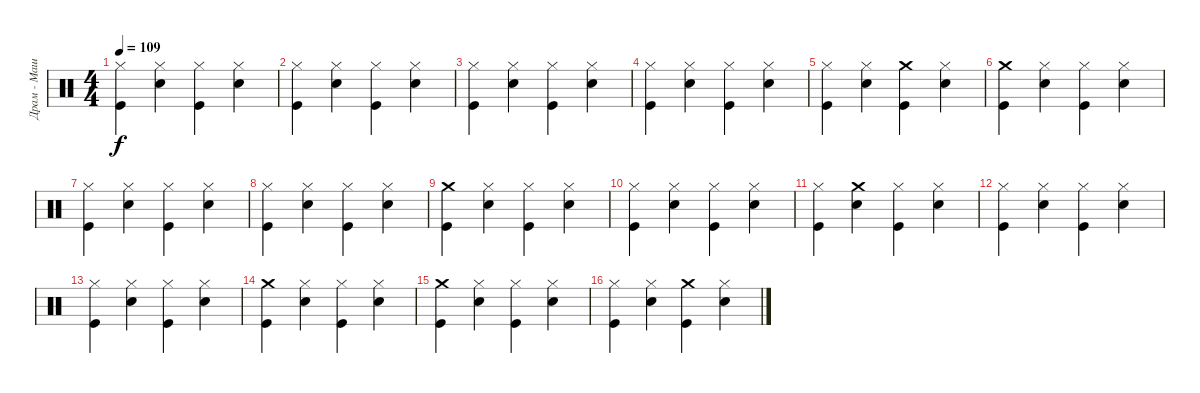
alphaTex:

\track ("Драм - Машина" "Драм - Маш") {instrument percussion}
\staff {score}
\articulation defaults
\ts (4 4)
\tempo 109
\clef neutral
\ks c
("Hi-Hat (closed)" "Kick (hit)").4{dy f} ("Hi-Hat (closed)" "Snare (hit) 2").4 ("Hi-Hat (closed)" "Kick (hit)").4 ("Hi-Hat (closed)" "Snare (hit) 2").4 |
("Hi-Hat (closed)" "Kick (hit)").4 ("Hi-Hat (closed)" "Snare (hit) 2").4 ("Hi-Hat (closed)" "Kick (hit)").4 ("Hi-Hat (closed)" "Snare (hit) 2").4 |
("Hi-Hat (closed)" "Kick (hit)").4 ("Hi-Hat (closed)" "Snare (hit) 2").4 ("Hi-Hat (closed)" "Kick (hit)").4 ("Hi-Hat (closed)" "Snare (hit) 2").4 |
("Hi-Hat (closed)" "Kick (hit)").4 ("Hi-Hat (closed)" "Snare (hit) 2").4 ("Hi-Hat (closed)" "Kick (hit)").4 ("Hi-Hat (closed)" "Snare (hit) 2").4 |
("Hi-Hat (closed)" "Kick (hit)").4 ("Hi-Hat (closed)" "Snare (hit) 2").4 ("Crash medium (hit)" "Kick (hit)").4 ("Hi-Hat (closed)" "Snare (hit) 2").4 |
("Crash medium (hit)" "Kick (hit)").4 ("Hi-Hat (closed)" "Snare (hit) 2").4 ("Hi-Hat (closed)" "Kick (hit)").4 ("Hi-Hat (closed)" "Snare (hit) 2").4 |
("Hi-Hat (closed)" "Kick (hit)").4 ("Hi-Hat (closed)" "Snare (hit) 2").4 ("Hi-Hat (closed)" "Kick (hit)").4 ("Hi-Hat (closed)" "Snare (hit) 2").4 |
("Hi-Hat (closed)" "Kick (hit)").4 ("Hi-Hat (closed)" "Snare (hit) 2").4 ("Hi-Hat (closed)" "Kick (hit)").4 ("Hi-Hat (closed)" "Snare (hit) 2").4 |
("Crash medium (hit)" "Kick (hit)").4 ("Hi-Hat (closed)" "Snare (hit) 2").4 ("Hi-Hat (closed)" "Kick (hit)").4 ("Hi-Hat (closed)" "Snare (hit) 2").4 |
("Hi-Hat (closed)" "Kick (hit)").4 ("Hi-Hat (closed)" "Snare (hit) 2").4 ("Hi-Hat (closed)" "Kick (hit)").4 ("Hi-Hat (closed)" "Snare (hit) 2").4 |
("Hi-Hat (closed)" "Kick (hit)").4 ("Crash medium (hit)" "Snare (hit) 2").4 ("Hi-Hat (closed)" "Kick (hit)").4 ("Hi-Hat (closed)" "Snare (hit) 2").4 |
("Hi-Hat (closed)" "Kick (hit)").4 ("Hi-Hat (closed)" "Snare (hit) 2").4 ("Hi-Hat (closed)" "Kick (hit)").4 ("Hi-Hat (closed)" "Snare (hit) 2").4 |
("Hi-Hat (closed)" "Kick (hit)").4 ("Hi-Hat (closed)" "Snare (hit) 2").4 ("Hi-Hat (closed)" "Kick (hit)").4 ("Hi-Hat (closed)" "Snare (hit) 2").4 |
("Crash medium (hit)" "Kick (hit)").4 ("Hi-Hat (closed)" "Snare (hit) 2").4 ("Hi-Hat (closed)" "Kick (hit)").4 ("Hi-Hat (closed)" "Snare (hit) 2").4 |
("Crash medium (hit)" "Kick (hit)").4 ("Hi-Hat (closed)" "Snare (hit) 2").4 ("Hi-Hat (closed)" "Kick (hit)").4 ("Hi-Hat (closed)" "Snare (hit) 2").4 |
("Hi-Hat (closed)" "Kick (hit)").4 ("Hi-Hat (closed)" "Snare (hit) 2").4 ("Crash medium (hit)" "Kick (hit)").4 ("Hi-Hat (closed)" "Snare (hit) 2").4
